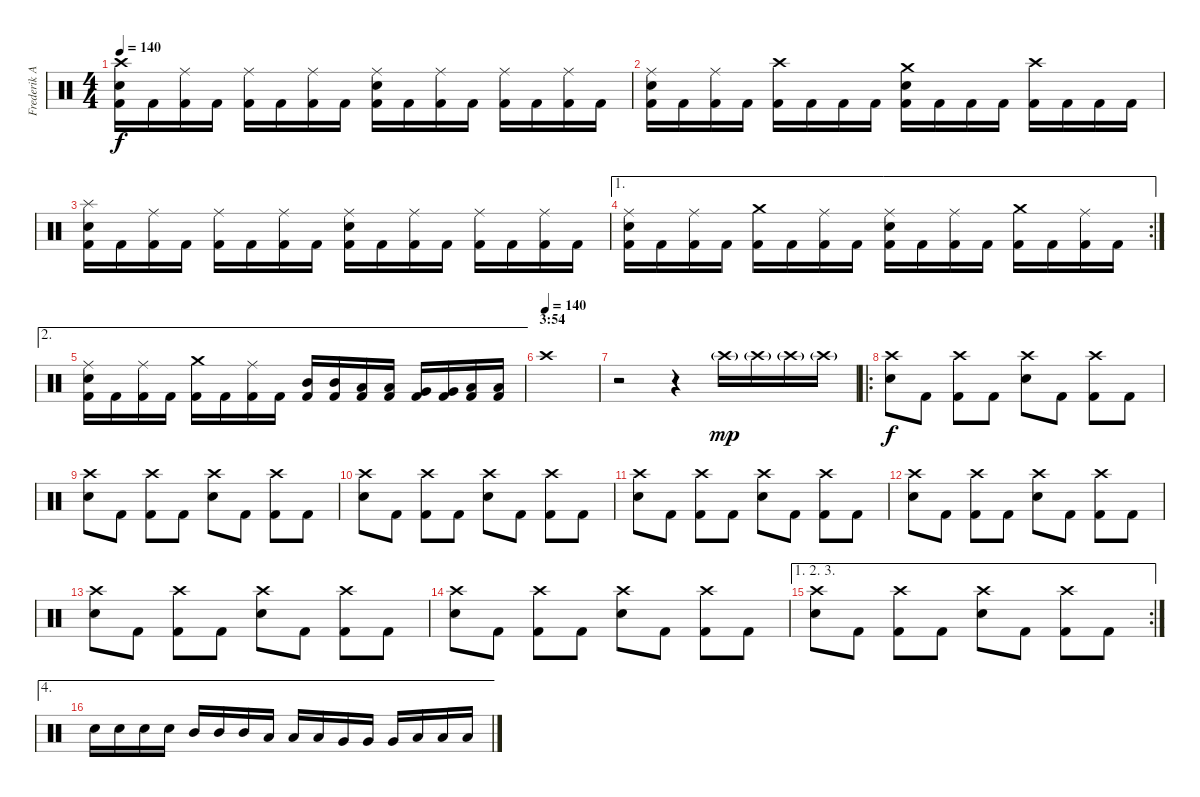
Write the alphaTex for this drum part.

\track ("Frederik Anderson" "Frederik A") {instrument percussion}
\staff {score}
\articulation defaults
\ts (4 4)
\tempo 140
\clef neutral
\ks c
("Crash high (hit)" "Electric Snare (hit)" "Kick (hit) 2").16{dy f} "Kick (hit) 2".16 ("Ride (middle)" "Kick (hit) 2").16 "Kick (hit) 2".16 ("Ride (middle)" "Kick (hit) 2").16 "Kick (hit) 2".16 ("Ride (middle)" "Kick (hit) 2").16 "Kick (hit) 2".16 ("Ride (middle)" "Electric Snare (hit)" "Kick (hit) 2").16 "Kick (hit) 2".16 ("Ride (middle)" "Kick (hit) 2").16 "Kick (hit) 2".16 ("Ride (middle)" "Kick (hit) 2").16 "Kick (hit) 2".16 ("Ride (middle)" "Kick (hit) 2").16 "Kick (hit) 2".16 |
("Ride (middle)" "Electric Snare (hit)" "Kick (hit) 2").16 "Kick (hit) 2".16 ("Ride (middle)" "Kick (hit) 2").16 "Kick (hit) 2".16 ("Crash high (hit)" "Kick (hit) 2").16 "Kick (hit) 2".16 "Kick (hit) 2".16 "Kick (hit) 2".16 ("Crash medium (hit)" "Electric Snare (hit)" "Kick (hit) 2").16 "Kick (hit) 2".16 "Kick (hit) 2".16 "Kick (hit) 2".16 ("Crash high (hit)" "Kick (hit) 2").16 "Kick (hit) 2".16 "Kick (hit) 2".16 "Kick (hit) 2".16 |
("Splash (hit)" "Electric Snare (hit)" "Kick (hit) 2").16 "Kick (hit) 2".16 ("Ride (middle)" "Kick (hit) 2").16 "Kick (hit) 2".16 ("Ride (middle)" "Kick (hit) 2").16 "Kick (hit) 2".16 ("Ride (middle)" "Kick (hit) 2").16 "Kick (hit) 2".16 ("Ride (middle)" "Electric Snare (hit)" "Kick (hit) 2").16 "Kick (hit) 2".16 ("Ride (middle)" "Kick (hit) 2").16 "Kick (hit) 2".16 ("Ride (middle)" "Kick (hit) 2").16 "Kick (hit) 2".16 ("Ride (middle)" "Kick (hit) 2").16 "Kick (hit) 2".16 |
\ae 1
\rc 2
("Ride (middle)" "Electric Snare (hit)" "Kick (hit) 2").16 "Kick (hit) 2".16 ("Ride (middle)" "Kick (hit) 2").16 "Kick (hit) 2".16 ("Crash medium (hit)" "Kick (hit) 2").16 "Kick (hit) 2".16 ("Ride (middle)" "Kick (hit) 2").16 "Kick (hit) 2".16 ("Ride (middle)" "Electric Snare (hit)" "Kick (hit) 2").16 "Kick (hit) 2".16 ("Ride (middle)" "Kick (hit) 2").16 "Kick (hit) 2".16 ("Crash medium (hit)" "Kick (hit) 2").16 "Kick (hit) 2".16 ("Ride (middle)" "Kick (hit) 2").16 "Kick (hit) 2".16 |
\ae 2
("Ride (middle)" "Electric Snare (hit)" "Kick (hit) 2").16 "Kick (hit) 2".16 ("Ride (middle)" "Kick (hit) 2").16 "Kick (hit) 2".16 ("Crash medium (hit)" "Kick (hit) 2").16 "Kick (hit) 2".16 ("Ride (middle)" "Kick (hit) 2").16 "Kick (hit) 2".16 ("Mid Tom (hit)" "Kick (hit) 2").16 ("Mid Tom (hit)" "Kick (hit) 2").16 ("Low Tom (hit)" "Kick (hit) 2").16 ("Low Tom (hit)" "Kick (hit) 2").16 ("Very Low Tom (hit)" "Kick (hit) 2").16 ("Very Low Tom (hit)" "Kick (hit) 2").16 ("Low Floor Tom (hit)" "Kick (hit) 2").16 ("Low Floor Tom (hit)" "Kick (hit) 2").16 |
\section ("" "3:54")
\tempo (140)
"Crash high (hit)".1 |
r.2 r.4 "Crash high (hit)"{g}.16{dy mp} "Crash high (hit)"{g}.16 "Crash high (hit)"{g}.16 "Crash high (hit)"{g}.16 |
\ro
("Crash high (hit)" "Electric Snare (hit)").8{dy f} "Kick (hit) 2".8 ("Crash high (hit)" "Kick (hit) 2").8 "Kick (hit) 2".8 ("Crash high (hit)" "Electric Snare (hit)").8 "Kick (hit) 2".8 ("Crash high (hit)" "Kick (hit) 2").8 "Kick (hit) 2".8 |
("Crash high (hit)" "Electric Snare (hit)").8 "Kick (hit) 2".8 ("Crash high (hit)" "Kick (hit) 2").8 "Kick (hit) 2".8 ("Crash high (hit)" "Electric Snare (hit)").8 "Kick (hit) 2".8 ("Crash high (hit)" "Kick (hit) 2").8 "Kick (hit) 2".8 |
("Crash high (hit)" "Electric Snare (hit)").8 "Kick (hit) 2".8 ("Crash high (hit)" "Kick (hit) 2").8 "Kick (hit) 2".8 ("Crash high (hit)" "Electric Snare (hit)").8 "Kick (hit) 2".8 ("Crash high (hit)" "Kick (hit) 2").8 "Kick (hit) 2".8 |
("Crash high (hit)" "Electric Snare (hit)").8 "Kick (hit) 2".8 ("Crash high (hit)" "Kick (hit) 2").8 "Kick (hit) 2".8 ("Crash high (hit)" "Electric Snare (hit)").8 "Kick (hit) 2".8 ("Crash high (hit)" "Kick (hit) 2").8 "Kick (hit) 2".8 |
("Crash high (hit)" "Electric Snare (hit)").8 "Kick (hit) 2".8 ("Crash high (hit)" "Kick (hit) 2").8 "Kick (hit) 2".8 ("Crash high (hit)" "Electric Snare (hit)").8 "Kick (hit) 2".8 ("Crash high (hit)" "Kick (hit) 2").8 "Kick (hit) 2".8 |
("Crash high (hit)" "Electric Snare (hit)").8 "Kick (hit) 2".8 ("Crash high (hit)" "Kick (hit) 2").8 "Kick (hit) 2".8 ("Crash high (hit)" "Electric Snare (hit)").8 "Kick (hit) 2".8 ("Crash high (hit)" "Kick (hit) 2").8 "Kick (hit) 2".8 |
("Crash high (hit)" "Electric Snare (hit)").8 "Kick (hit) 2".8 ("Crash high (hit)" "Kick (hit) 2").8 "Kick (hit) 2".8 ("Crash high (hit)" "Electric Snare (hit)").8 "Kick (hit) 2".8 ("Crash high (hit)" "Kick (hit) 2").8 "Kick (hit) 2".8 |
\ae (1 2 3)
\rc 2
("Crash high (hit)" "Electric Snare (hit)").8 "Kick (hit) 2".8 ("Crash high (hit)" "Kick (hit) 2").8 "Kick (hit) 2".8 ("Crash high (hit)" "Electric Snare (hit)").8 "Kick (hit) 2".8 ("Crash high (hit)" "Kick (hit) 2").8 "Kick (hit) 2".8 |
\ae 4 "Electric Snare (hit)".16 "Electric Snare (hit)".16 "Electric Snare (hit)".16 "Electric Snare (hit)".16 "Mid Tom (hit)".16 "Mid Tom (hit)".16 "Mid Tom (hit)".16 "Low Tom (hit)".16 "Low Tom (hit)".16 "Low Tom (hit)".16 "Very Low Tom (hit)".16 "Very Low Tom (hit)".16 "Very Low Tom (hit)".16 "Low Floor Tom (hit)".16 "Low Floor Tom (hit)".16 "Low Floor Tom (hit)".16
